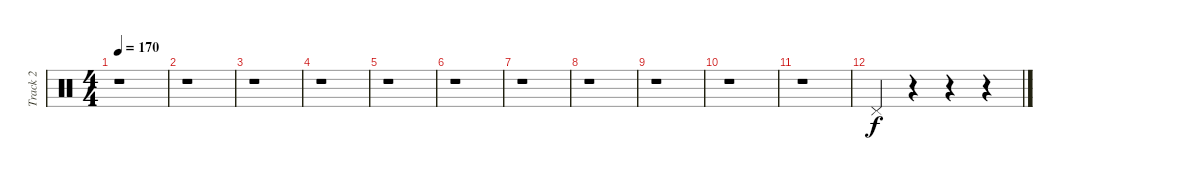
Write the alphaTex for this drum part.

\track ("Track 2" "Track 2") {instrument percussion}
\staff {score}
\articulation defaults
\ts (4 4)
\tempo 170
\clef neutral
\ks c
r.1{dy f} |
r.1 |
r.1 |
r.1 |
r.1 |
r.1 |
r.1 |
r.1 |
r.1 |
r.1 |
r.1 |
"Pedal Hi-Hat (hit)".4 r.4 r.4 r.4
